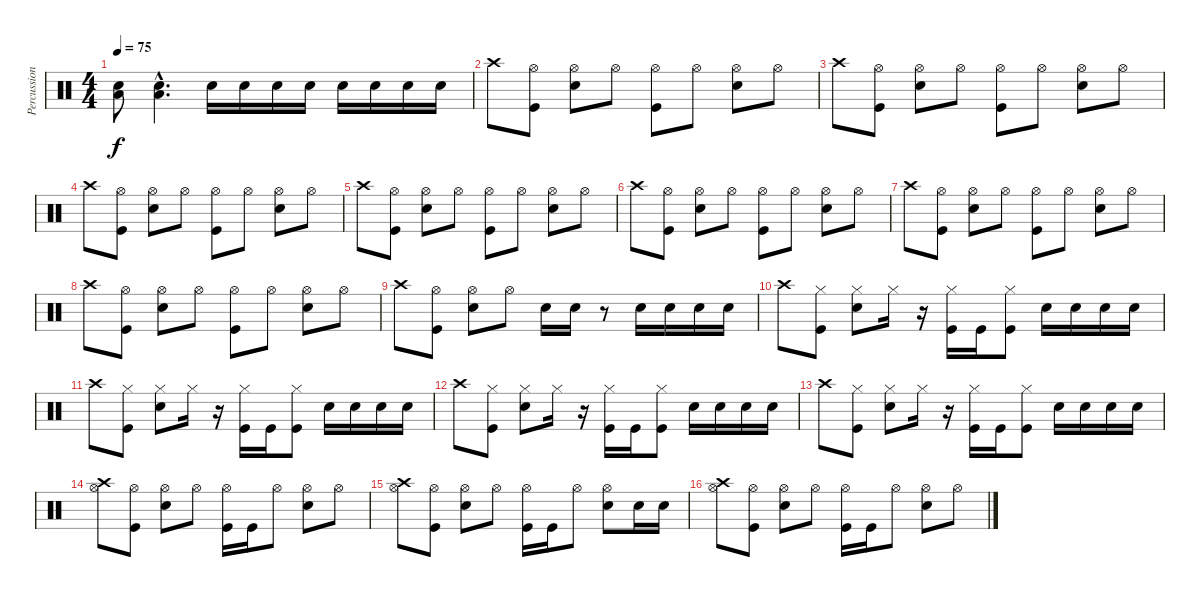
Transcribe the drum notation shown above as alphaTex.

\track ("Percussion" "Percussion") {instrument percussion}
\staff {score}
\articulation defaults
\ts (4 4)
\tempo 75
\clef neutral
\ks c
("Low Tom (hit)" "Snare (hit) 2").8{dy f} ("Low Tom (hit)"{hac} "Snare (hit) 2"{hac}).4{d} "Snare (hit) 2".16 "Snare (hit) 2".16 "Snare (hit) 2".16 "Snare (hit) 2".16 "Snare (hit) 2".16 "Snare (hit) 2".16 "Snare (hit) 2".16 "Snare (hit) 2".16 |
"Crash high (hit)".8 ("Kick (hit)" "Hi-Hat (open)").8 ("Snare (hit) 2" "Hi-Hat (open)").8 "Hi-Hat (open)".8 ("Kick (hit)" "Hi-Hat (open)").8 "Hi-Hat (open)".8 ("Snare (hit) 2" "Hi-Hat (open)").8 "Hi-Hat (open)".8 |
"Crash high (hit)".8 ("Kick (hit)" "Hi-Hat (open)").8 ("Snare (hit) 2" "Hi-Hat (open)").8 "Hi-Hat (open)".8 ("Kick (hit)" "Hi-Hat (open)").8 "Hi-Hat (open)".8 ("Snare (hit) 2" "Hi-Hat (open)").8 "Hi-Hat (open)".8 |
"Crash high (hit)".8 ("Kick (hit)" "Hi-Hat (open)").8 ("Snare (hit) 2" "Hi-Hat (open)").8 "Hi-Hat (open)".8 ("Kick (hit)" "Hi-Hat (open)").8 "Hi-Hat (open)".8 ("Snare (hit) 2" "Hi-Hat (open)").8 "Hi-Hat (open)".8 |
"Crash high (hit)".8 ("Kick (hit)" "Hi-Hat (open)").8 ("Snare (hit) 2" "Hi-Hat (open)").8 "Hi-Hat (open)".8 ("Kick (hit)" "Hi-Hat (open)").8 "Hi-Hat (open)".8 ("Snare (hit) 2" "Hi-Hat (open)").8 "Hi-Hat (open)".8 |
"Crash high (hit)".8 ("Kick (hit)" "Hi-Hat (open)").8 ("Snare (hit) 2" "Hi-Hat (open)").8 "Hi-Hat (open)".8 ("Kick (hit)" "Hi-Hat (open)").8 "Hi-Hat (open)".8 ("Snare (hit) 2" "Hi-Hat (open)").8 "Hi-Hat (open)".8 |
"Crash high (hit)".8 ("Kick (hit)" "Hi-Hat (open)").8 ("Snare (hit) 2" "Hi-Hat (open)").8 "Hi-Hat (open)".8 ("Kick (hit)" "Hi-Hat (open)").8 "Hi-Hat (open)".8 ("Snare (hit) 2" "Hi-Hat (open)").8 "Hi-Hat (open)".8 |
"Crash high (hit)".8 ("Kick (hit)" "Hi-Hat (open)").8 ("Snare (hit) 2" "Hi-Hat (open)").8 "Hi-Hat (open)".8 ("Kick (hit)" "Hi-Hat (open)").8 "Hi-Hat (open)".8 ("Snare (hit) 2" "Hi-Hat (open)").8 "Hi-Hat (open)".8 |
"Crash high (hit)".8 ("Kick (hit)" "Hi-Hat (open)").8 ("Snare (hit) 2" "Hi-Hat (open)").8 "Hi-Hat (open)".8 "Snare (hit) 2".16 "Snare (hit) 2".16 r.8 "Snare (hit) 2".16 "Snare (hit) 2".16 "Snare (hit) 2".16 "Snare (hit) 2".16 |
"Crash high (hit)".8 ("Hi-Hat (closed)" "Kick (hit)").8 ("Hi-Hat (closed)" "Snare (hit) 2").8 "Hi-Hat (closed)".16 r.16 ("Hi-Hat (closed)" "Kick (hit)").16 "Kick (hit)".16 ("Hi-Hat (closed)" "Kick (hit)").8 "Snare (hit) 2".16 "Snare (hit) 2".16 "Snare (hit) 2".16 "Snare (hit) 2".16 |
"Crash high (hit)".8 ("Hi-Hat (closed)" "Kick (hit)").8 ("Hi-Hat (closed)" "Snare (hit) 2").8 "Hi-Hat (closed)".16 r.16 ("Hi-Hat (closed)" "Kick (hit)").16 "Kick (hit)".16 ("Hi-Hat (closed)" "Kick (hit)").8 "Snare (hit) 2".16 "Snare (hit) 2".16 "Snare (hit) 2".16 "Snare (hit) 2".16 |
"Crash high (hit)".8 ("Hi-Hat (closed)" "Kick (hit)").8 ("Hi-Hat (closed)" "Snare (hit) 2").8 "Hi-Hat (closed)".16 r.16 ("Hi-Hat (closed)" "Kick (hit)").16 "Kick (hit)".16 ("Hi-Hat (closed)" "Kick (hit)").8 "Snare (hit) 2".16 "Snare (hit) 2".16 "Snare (hit) 2".16 "Snare (hit) 2".16 |
"Crash high (hit)".8 ("Hi-Hat (closed)" "Kick (hit)").8 ("Hi-Hat (closed)" "Snare (hit) 2").8 "Hi-Hat (closed)".16 r.16 ("Hi-Hat (closed)" "Kick (hit)").16 "Kick (hit)".16 ("Hi-Hat (closed)" "Kick (hit)").8 "Snare (hit) 2".16 "Snare (hit) 2".16 "Snare (hit) 2".16 "Snare (hit) 2".16 |
("Crash high (hit)" "Hi-Hat (open)").8 ("Kick (hit)" "Hi-Hat (open)").8 ("Snare (hit) 2" "Hi-Hat (open)").8 "Hi-Hat (open)".8 ("Kick (hit)" "Hi-Hat (open)").16 "Kick (hit)".16 "Hi-Hat (open)".8 ("Snare (hit) 2" "Hi-Hat (open)").8 "Hi-Hat (open)".8 |
("Crash high (hit)" "Hi-Hat (open)").8 ("Kick (hit)" "Hi-Hat (open)").8 ("Snare (hit) 2" "Hi-Hat (open)").8 "Hi-Hat (open)".8 ("Kick (hit)" "Hi-Hat (open)").16 "Kick (hit)".16 "Hi-Hat (open)".8 ("Snare (hit) 2" "Hi-Hat (open)").8 "Snare (hit) 2".16 "Snare (hit) 2".16 |
("Crash high (hit)" "Hi-Hat (open)").8 ("Kick (hit)" "Hi-Hat (open)").8 ("Snare (hit) 2" "Hi-Hat (open)").8 "Hi-Hat (open)".8 ("Kick (hit)" "Hi-Hat (open)").16 "Kick (hit)".16 "Hi-Hat (open)".8 ("Snare (hit) 2" "Hi-Hat (open)").8 "Hi-Hat (open)".8
